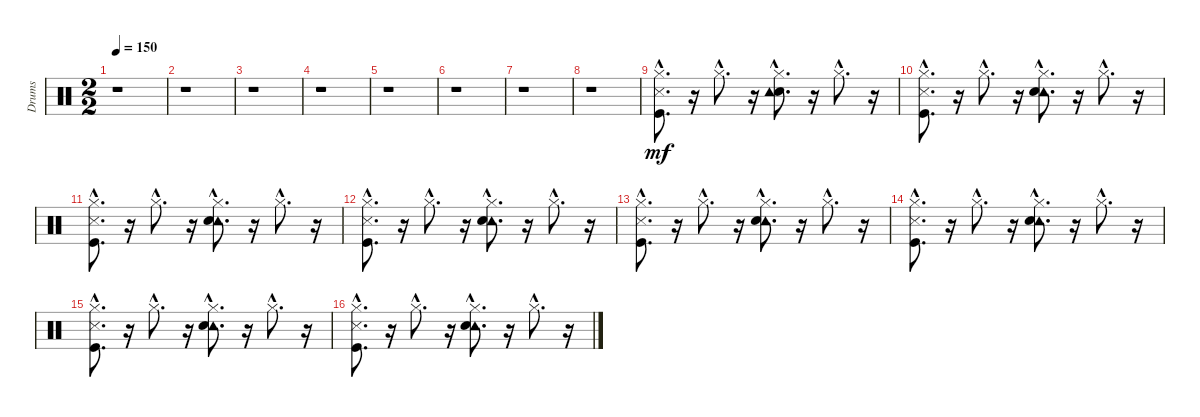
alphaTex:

\track ("Drums" "Drums") {instrument percussion}
\staff {score}
\articulation defaults
\ts (2 2)
\tempo 150
\clef neutral
\ks c
r.1{dy mf} |
r.1 |
r.1 |
r.1 |
r.1 |
r.1 |
r.1 |
r.1 |
("Metronome (hit)"{hac} "Kick (hit)"{hac} "Hi-Hat (closed)"{hac}).8{d} r.16 "Hi-Hat (closed)"{hac}.8{d} r.16 ("Electric Snare (hit)"{hac} "Tambourine (hit)"{hac} "Hi-Hat (closed)"{hac}).8{d} r.16 "Hi-Hat (closed)"{hac}.8{d} r.16 |
("Hi-Hat (closed)"{hac} "Kick (hit)"{hac} "Metronome (hit)"{hac}).8{d} r.16 "Hi-Hat (closed)"{hac}.8{d} r.16 ("Hi-Hat (closed)"{hac} "Tambourine (hit)"{hac} "Electric Snare (hit)"{hac}).8{d} r.16 "Hi-Hat (closed)"{hac}.8{d} r.16 |
("Hi-Hat (closed)"{hac} "Kick (hit)"{hac} "Metronome (hit)"{hac}).8{d} r.16 "Hi-Hat (closed)"{hac}.8{d} r.16 ("Hi-Hat (closed)"{hac} "Tambourine (hit)"{hac} "Electric Snare (hit)"{hac}).8{d} r.16 "Hi-Hat (closed)"{hac}.8{d} r.16 |
("Hi-Hat (closed)"{hac} "Kick (hit)"{hac} "Metronome (hit)"{hac}).8{d} r.16 "Hi-Hat (closed)"{hac}.8{d} r.16 ("Hi-Hat (closed)"{hac} "Tambourine (hit)"{hac} "Electric Snare (hit)"{hac}).8{d} r.16 "Hi-Hat (closed)"{hac}.8{d} r.16 |
("Hi-Hat (closed)"{hac} "Kick (hit)"{hac} "Metronome (hit)"{hac}).8{d} r.16 "Hi-Hat (closed)"{hac}.8{d} r.16 ("Hi-Hat (closed)"{hac} "Tambourine (hit)"{hac} "Electric Snare (hit)"{hac}).8{d} r.16 "Hi-Hat (closed)"{hac}.8{d} r.16 |
("Hi-Hat (closed)"{hac} "Kick (hit)"{hac} "Metronome (hit)"{hac}).8{d} r.16 "Hi-Hat (closed)"{hac}.8{d} r.16 ("Hi-Hat (closed)"{hac} "Tambourine (hit)"{hac} "Electric Snare (hit)"{hac}).8{d} r.16 "Hi-Hat (closed)"{hac}.8{d} r.16 |
("Hi-Hat (closed)"{hac} "Kick (hit)"{hac} "Metronome (hit)"{hac}).8{d} r.16 "Hi-Hat (closed)"{hac}.8{d} r.16 ("Hi-Hat (closed)"{hac} "Tambourine (hit)"{hac} "Electric Snare (hit)"{hac}).8{d} r.16 "Hi-Hat (closed)"{hac}.8{d} r.16 |
("Hi-Hat (closed)"{hac} "Kick (hit)"{hac} "Metronome (hit)"{hac}).8{d} r.16 "Hi-Hat (closed)"{hac}.8{d} r.16 ("Hi-Hat (closed)"{hac} "Tambourine (hit)"{hac} "Electric Snare (hit)"{hac}).8{d} r.16 "Hi-Hat (closed)"{hac}.8{d} r.16
